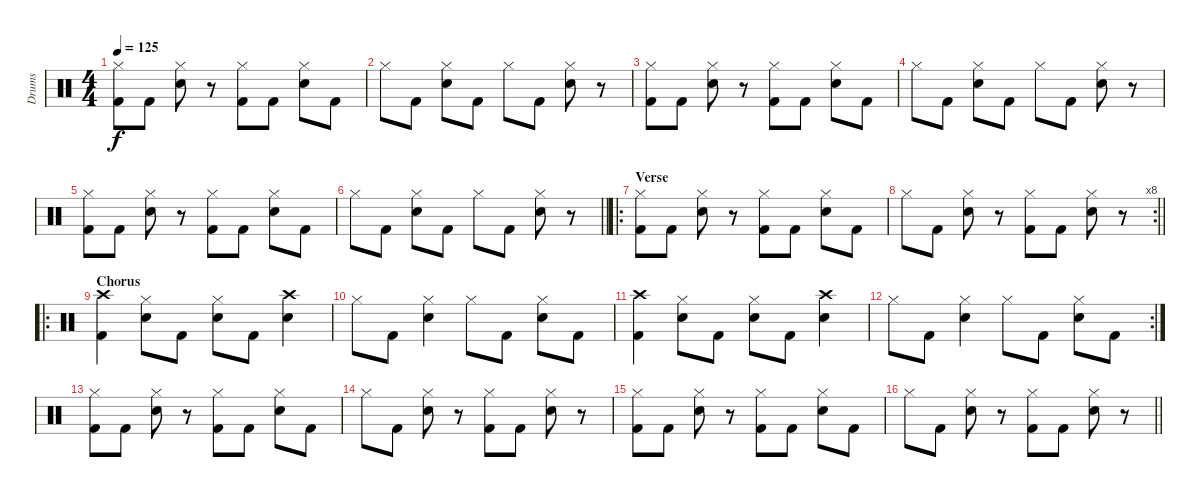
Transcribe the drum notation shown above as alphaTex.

\track ("Drums" "Drums") {instrument percussion}
\staff {score}
\articulation defaults
\ts (4 4)
\tempo 125
\clef neutral
\ks c
("Hi-Hat (closed)" "Kick (hit) 2").8{dy f} "Kick (hit) 2".8 ("Hi-Hat (closed)" "Snare (hit) 2").8 r.8 ("Hi-Hat (closed)" "Kick (hit) 2").8 "Kick (hit) 2".8 ("Hi-Hat (closed)" "Snare (hit) 2").8 "Kick (hit) 2".8 |
"Hi-Hat (closed)".8 "Kick (hit) 2".8 ("Hi-Hat (closed)" "Snare (hit) 2").8 "Kick (hit) 2".8 "Hi-Hat (closed)".8 "Kick (hit) 2".8 ("Hi-Hat (closed)" "Snare (hit) 2").8 r.8 |
("Hi-Hat (closed)" "Kick (hit) 2").8 "Kick (hit) 2".8 ("Hi-Hat (closed)" "Snare (hit) 2").8 r.8 ("Hi-Hat (closed)" "Kick (hit) 2").8 "Kick (hit) 2".8 ("Hi-Hat (closed)" "Snare (hit) 2").8 "Kick (hit) 2".8 |
"Hi-Hat (closed)".8 "Kick (hit) 2".8 ("Hi-Hat (closed)" "Snare (hit) 2").8 "Kick (hit) 2".8 "Hi-Hat (closed)".8 "Kick (hit) 2".8 ("Hi-Hat (closed)" "Snare (hit) 2").8 r.8 |
("Hi-Hat (closed)" "Kick (hit) 2").8 "Kick (hit) 2".8 ("Hi-Hat (closed)" "Snare (hit) 2").8 r.8 ("Hi-Hat (closed)" "Kick (hit) 2").8 "Kick (hit) 2".8 ("Hi-Hat (closed)" "Snare (hit) 2").8 "Kick (hit) 2".8 |
\barLineRight lightlight "Hi-Hat (closed)".8 "Kick (hit) 2".8
("Hi-Hat (closed)" "Snare (hit) 2").8 "Kick (hit) 2".8 "Hi-Hat (closed)".8 "Kick (hit) 2".8 ("Hi-Hat (closed)" "Snare (hit) 2").8 r.8 |
\ro
\section ("" "Verse")
("Hi-Hat (closed)" "Kick (hit) 2").8 "Kick (hit) 2".8 ("Hi-Hat (closed)" "Snare (hit) 2").8 r.8 ("Hi-Hat (closed)" "Kick (hit) 2").8 "Kick (hit) 2".8 ("Hi-Hat (closed)" "Snare (hit) 2").8 "Kick (hit) 2".8 |
\rc 8
\barLineRight lightlight "Hi-Hat (closed)".8 "Kick (hit) 2".8
("Hi-Hat (closed)" "Snare (hit) 2").8 r.8 ("Hi-Hat (closed)" "Kick (hit) 2").8 "Kick (hit) 2".8 ("Hi-Hat (closed)" "Snare (hit) 2").8 r.8 |
\ro
\section ("" "Chorus")
("Crash high (hit)" "Kick (hit) 2").4 ("Hi-Hat (closed)" "Snare (hit) 2").8 "Kick (hit) 2".8 ("Hi-Hat (closed)" "Snare (hit) 2").8 "Kick (hit) 2".8 ("Crash high (hit)" "Snare (hit) 2").4 |
"Hi-Hat (closed)".8 "Kick (hit) 2".8 ("Hi-Hat (closed)" "Snare (hit) 2").4 "Hi-Hat (closed)".8 "Kick (hit) 2".8 ("Hi-Hat (closed)" "Snare (hit) 2").8 "Kick (hit) 2".8 |
("Crash high (hit)" "Kick (hit) 2").4 ("Hi-Hat (closed)" "Snare (hit) 2").8 "Kick (hit) 2".8 ("Hi-Hat (closed)" "Snare (hit) 2").8 "Kick (hit) 2".8 ("Crash high (hit)" "Snare (hit) 2").4 |
\rc 2 "Hi-Hat (closed)".8 "Kick (hit) 2".8
("Hi-Hat (closed)" "Snare (hit) 2").4 "Hi-Hat (closed)".8 "Kick (hit) 2".8 ("Hi-Hat (closed)" "Snare (hit) 2").8 "Kick (hit) 2".8 |
("Hi-Hat (closed)" "Kick (hit) 2").8 "Kick (hit) 2".8 ("Hi-Hat (closed)" "Snare (hit) 2").8 r.8 ("Hi-Hat (closed)" "Kick (hit) 2").8 "Kick (hit) 2".8 ("Hi-Hat (closed)" "Snare (hit) 2").8 "Kick (hit) 2".8 |
"Hi-Hat (closed)".8 "Kick (hit) 2".8 ("Hi-Hat (closed)" "Snare (hit) 2").8 r.8 ("Hi-Hat (closed)" "Kick (hit) 2").8 "Kick (hit) 2".8 ("Hi-Hat (closed)" "Snare (hit) 2").8 r.8 |
("Hi-Hat (closed)" "Kick (hit) 2").8 "Kick (hit) 2".8 ("Hi-Hat (closed)" "Snare (hit) 2").8 r.8 ("Hi-Hat (closed)" "Kick (hit) 2").8 "Kick (hit) 2".8 ("Hi-Hat (closed)" "Snare (hit) 2").8 "Kick (hit) 2".8 |
\barLineRight lightlight "Hi-Hat (closed)".8 "Kick (hit) 2".8
("Hi-Hat (closed)" "Snare (hit) 2").8 r.8 ("Hi-Hat (closed)" "Kick (hit) 2").8 "Kick (hit) 2".8 ("Hi-Hat (closed)" "Snare (hit) 2").8 r.8
